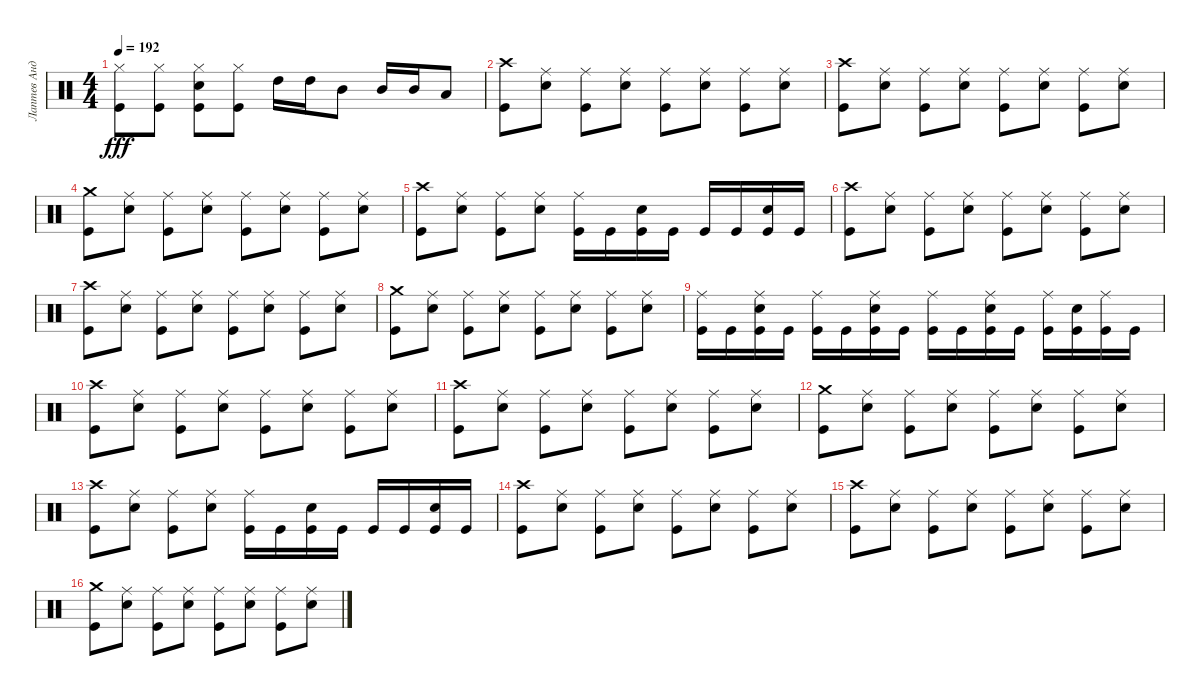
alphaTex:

\track ("Лаптев Андрей" "Лаптев Анд") {instrument percussion}
\staff {score}
\articulation defaults
\ts (4 4)
\tempo 192
\clef neutral
\ks c
("Kick (hit)" "Hi-Hat (closed)").8{dy fff} ("Hi-Hat (closed)" "Kick (hit)").8 ("Kick (hit)" "Hi-Hat (closed)" "Electric Snare (hit)").8 ("Kick (hit)" "Hi-Hat (closed)").8 "High Tom (hit)".16 "High Tom (hit)".16 "Mid Tom (hit)".8 "Mid Tom (hit)".16 "Mid Tom (hit)".16 "Low Tom (hit)".8 |
("Crash high (hit)" "Kick (hit)").8 ("Ride (middle)" "Electric Snare (hit)").8 ("Ride (middle)" "Kick (hit)").8 ("Electric Snare (hit)" "Ride (middle)").8 ("Kick (hit)" "Ride (middle)").8 ("Electric Snare (hit)" "Ride (middle)").8 ("Ride (middle)" "Kick (hit)").8 ("Ride (middle)" "Electric Snare (hit)").8 |
("Crash high (hit)" "Kick (hit)").8 ("Ride (middle)" "Electric Snare (hit)").8 ("Kick (hit)" "Ride (middle)").8 ("Ride (middle)" "Electric Snare (hit)").8 ("Kick (hit)" "Ride (middle)").8 ("Electric Snare (hit)" "Ride (middle)").8 ("Kick (hit)" "Ride (middle)").8 ("Electric Snare (hit)" "Ride (middle)").8 |
("Kick (hit)" "Crash medium (hit)").8 ("Ride (middle)" "Electric Snare (hit)").8 ("Ride (middle)" "Kick (hit)").8 ("Ride (middle)" "Electric Snare (hit)").8 ("Ride (middle)" "Kick (hit)").8 ("Electric Snare (hit)" "Ride (middle)").8 ("Kick (hit)" "Ride (middle)").8 ("Electric Snare (hit)" "Ride (middle)").8 |
("Crash high (hit)" "Kick (hit)").8 ("Ride (middle)" "Electric Snare (hit)").8 ("Ride (middle)" "Kick (hit)").8 ("Electric Snare (hit)" "Ride (middle)").8 ("Ride (middle)" "Kick (hit)").16 "Kick (hit)".16 ("Kick (hit)" "Electric Snare (hit)").16 "Kick (hit)".16 "Kick (hit)".16 "Kick (hit)".16 ("Kick (hit)" "Electric Snare (hit)").16 "Kick (hit)".16 |
("Kick (hit)" "Crash high (hit)").8 ("Ride (middle)" "Electric Snare (hit)").8 ("Kick (hit)" "Ride (middle)").8 ("Ride (middle)" "Electric Snare (hit)").8 ("Ride (middle)" "Kick (hit)").8 ("Electric Snare (hit)" "Ride (middle)").8 ("Kick (hit)" "Ride (middle)").8 ("Electric Snare (hit)" "Ride (middle)").8 |
("Crash high (hit)" "Kick (hit)").8 ("Electric Snare (hit)" "Ride (middle)").8 ("Ride (middle)" "Kick (hit)").8 ("Electric Snare (hit)" "Ride (middle)").8 ("Kick (hit)" "Ride (middle)").8 ("Ride (middle)" "Electric Snare (hit)").8 ("Kick (hit)" "Ride (middle)").8 ("Ride (middle)" "Electric Snare (hit)").8 |
("Kick (hit)" "Crash medium (hit)").8 ("Electric Snare (hit)" "Ride (middle)").8 ("Kick (hit)" "Ride (middle)").8 ("Electric Snare (hit)" "Ride (middle)").8 ("Kick (hit)" "Ride (middle)").8 ("Electric Snare (hit)" "Ride (middle)").8 ("Ride (middle)" "Kick (hit)").8 ("Ride (middle)" "Electric Snare (hit)").8 |
("Kick (hit)" "Ride (middle)").16 "Kick (hit)".16 ("Electric Snare (hit)" "Ride (middle)" "Kick (hit)").16 "Kick (hit)".16 ("Kick (hit)" "Ride (middle)").16 "Kick (hit)".16 ("Ride (middle)" "Kick (hit)" "Electric Snare (hit)").16 "Kick (hit)".16 ("Kick (hit)" "Ride (middle)").16 "Kick (hit)".16 ("Electric Snare (hit)" "Kick (hit)" "Ride (middle)").16 "Kick (hit)".16 ("Kick (hit)" "Ride (middle)").16 ("Kick (hit)" "Electric Snare (hit)").16 ("Kick (hit)" "Ride (middle)").16 "Kick (hit)".16 |
("Kick (hit)" "Crash high (hit)").8 ("Electric Snare (hit)" "Ride (middle)").8 ("Ride (middle)" "Kick (hit)").8 ("Ride (middle)" "Electric Snare (hit)").8 ("Ride (middle)" "Kick (hit)").8 ("Electric Snare (hit)" "Ride (middle)").8 ("Kick (hit)" "Ride (middle)").8 ("Electric Snare (hit)" "Ride (middle)").8 |
("Kick (hit)" "Crash high (hit)").8 ("Ride (middle)" "Electric Snare (hit)").8 ("Ride (middle)" "Kick (hit)").8 ("Electric Snare (hit)" "Ride (middle)").8 ("Kick (hit)" "Ride (middle)").8 ("Electric Snare (hit)" "Ride (middle)").8 ("Ride (middle)" "Kick (hit)").8 ("Electric Snare (hit)" "Ride (middle)").8 |
("Kick (hit)" "Crash medium (hit)").8 ("Ride (middle)" "Electric Snare (hit)").8 ("Kick (hit)" "Ride (middle)").8 ("Ride (middle)" "Electric Snare (hit)").8 ("Ride (middle)" "Kick (hit)").8 ("Electric Snare (hit)" "Ride (middle)").8 ("Ride (middle)" "Kick (hit)").8 ("Electric Snare (hit)" "Ride (middle)").8 |
("Crash high (hit)" "Kick (hit)").8 ("Ride (middle)" "Electric Snare (hit)").8 ("Ride (middle)" "Kick (hit)").8 ("Ride (middle)" "Electric Snare (hit)").8 ("Kick (hit)" "Ride (middle)").16 "Kick (hit)".16 ("Electric Snare (hit)" "Kick (hit)").16 "Kick (hit)".16 "Kick (hit)".16 "Kick (hit)".16 ("Kick (hit)" "Electric Snare (hit)").16 "Kick (hit)".16 |
("Kick (hit)" "Crash high (hit)").8 ("Ride (middle)" "Electric Snare (hit)").8 ("Kick (hit)" "Ride (middle)").8 ("Ride (middle)" "Electric Snare (hit)").8 ("Kick (hit)" "Ride (middle)").8 ("Ride (middle)" "Electric Snare (hit)").8 ("Kick (hit)" "Ride (middle)").8 ("Electric Snare (hit)" "Ride (middle)").8 |
("Kick (hit)" "Crash high (hit)").8 ("Ride (middle)" "Electric Snare (hit)").8 ("Kick (hit)" "Ride (middle)").8 ("Ride (middle)" "Electric Snare (hit)").8 ("Ride (middle)" "Kick (hit)").8 ("Ride (middle)" "Electric Snare (hit)").8 ("Ride (middle)" "Kick (hit)").8 ("Electric Snare (hit)" "Ride (middle)").8 |
("Kick (hit)" "Crash medium (hit)").8 ("Electric Snare (hit)" "Ride (middle)").8 ("Ride (middle)" "Kick (hit)").8 ("Electric Snare (hit)" "Ride (middle)").8 ("Kick (hit)" "Ride (middle)").8 ("Ride (middle)" "Electric Snare (hit)").8 ("Ride (middle)" "Kick (hit)").8 ("Electric Snare (hit)" "Ride (middle)").8
